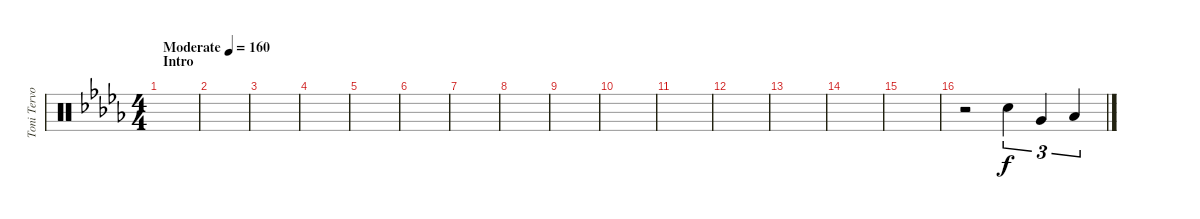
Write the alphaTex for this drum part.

\track ("Toni Tervo (drums)" "Toni Tervo") {instrument percussion}
\staff {score}
\articulation defaults
\ts (4 4)
\section ("" "Intro")
\tempo (160 "Moderate")
\clef neutral
\ks bbminor
|
|
|
|
|
|
|
|
|
|
|
|
|
|
|
r.2 "Snare (hit) 2".4{tu (3 2)} "Very Low Tom (hit)".4{tu (3 2)} "Low Floor Tom (hit)".4{tu (3 2)}
